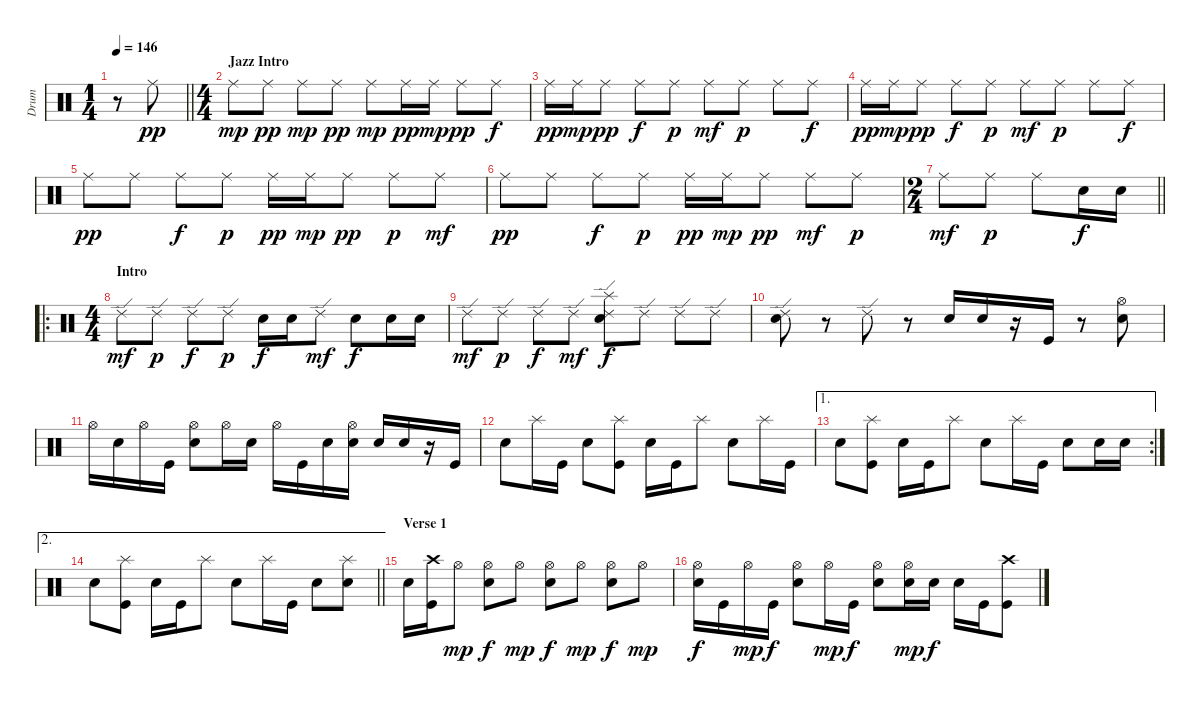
\track ("Drum" "Drum") {instrument percussion}
\staff {score}
\articulation defaults
\ts (1 4)
\tempo 146
\clef neutral
\barLineRight lightlight
\ks c
r.8{dy pp} "Ride (middle)".8 |
\ts (4 4)
\section ("" "Jazz Intro")
"Ride (middle)".8{dy mp} "Ride (middle)".8{dy pp} "Ride (middle)".8{dy mp} "Ride (middle)".8{dy pp} "Ride (middle)".8{dy mp} "Ride (middle)".16{dy pp} "Ride (middle)".16{dy mp} "Ride (middle)".8{dy pp} "Ride (middle)".8{dy f} |
"Ride (middle)".16{dy pp} "Ride (middle)".16{dy mp} "Ride (middle)".8{dy pp} "Ride (middle)".8{dy f} "Ride (middle)".8{dy p} "Ride (middle)".8{dy mf} "Ride (middle)".8{dy p} "Ride (middle)".8 "Ride (middle)".8{dy f} |
"Ride (middle)".16{dy pp} "Ride (middle)".16{dy mp} "Ride (middle)".8{dy pp} "Ride (middle)".8{dy f} "Ride (middle)".8{dy p} "Ride (middle)".8{dy mf} "Ride (middle)".8{dy p} "Ride (middle)".8 "Ride (middle)".8{dy f} |
"Ride (middle)".8{dy pp} "Ride (middle)".8 "Ride (middle)".8{dy f} "Ride (middle)".8{dy p} "Ride (middle)".16{dy pp} "Ride (middle)".16{dy mp} "Ride (middle)".8{dy pp} "Ride (middle)".8{dy p} "Ride (middle)".8{dy mf} |
"Ride (middle)".8{dy pp} "Ride (middle)".8 "Ride (middle)".8{dy f} "Ride (middle)".8{dy p} "Ride (middle)".16{dy pp} "Ride (middle)".16{dy mp} "Ride (middle)".8{dy pp} "Ride (middle)".8{dy mf} "Ride (middle)".8{dy p} |
\ts (2 4)
\barLineRight lightlight "Ride (middle)".8{dy mf} "Ride (middle)".8{dy p} "Ride (middle)".8 "Snare (hit) 2".16{dy f} "Snare (hit) 2".16
|
\ro
\ts (4 4)
\section ("" "Intro")
"Ride (edge) 2".8{dy mf} "Ride (edge) 2".8{dy p} "Ride (edge) 2".8{dy f} "Ride (edge) 2".8{dy p} "Snare (hit) 2".16{dy f} "Snare (hit) 2".16 "Ride (edge) 2".8{dy mf} "Snare (hit) 2".8{dy f} "Snare (hit) 2".16 "Snare (hit) 2".16 |
"Ride (edge) 2".8{dy mf} "Ride (edge) 2".8{dy p} "Ride (edge) 2".8{dy f} "Ride (edge) 2".8{dy mf} ("Ride (edge) 2" "Splash (hit)" "Snare (hit) 2").8{dy f} "Ride (edge) 2".8 "Ride (edge) 2".8 "Ride (edge) 2".8 |
("Ride (edge) 2" "Snare (hit) 2").8 r.8 "Ride (edge) 2".8 r.8 "Snare (hit) 2".16 "Snare (hit) 2".16 r.16 "Kick (hit)".16 r.8 ("Hi-Hat (open)" "Snare (hit) 2").8 |
"Hi-Hat (open)".16 "Snare (hit) 2".16 "Hi-Hat (open)".16 "Kick (hit)".16 ("Hi-Hat (open)" "Snare (hit) 2").8 "Hi-Hat (open)".16 "Snare (hit) 2".16 "Hi-Hat (open)".16 "Kick (hit)".16 "Snare (hit) 2".16 ("Hi-Hat (open)" "Snare (hit) 2").16 "Snare (hit) 2".16 "Snare (hit) 2".16 r.16 "Kick (hit)".16 |
"Snare (hit) 2".8 "Splash (hit)".16 "Kick (hit)".16 "Snare (hit) 2".8 ("Splash (hit)" "Kick (hit)").8 "Snare (hit) 2".16 "Kick (hit)".16 "Splash (hit)".8 "Snare (hit) 2".8 "Splash (hit)".16 "Kick (hit)".16 |
\ae 1
\rc 2 "Snare (hit) 2".8
("Splash (hit)" "Kick (hit)").8 "Snare (hit) 2".16 "Kick (hit)".16 "Splash (hit)".8 "Snare (hit) 2".8 "Splash (hit)".16 "Kick (hit)".16 "Snare (hit) 2".8 "Snare (hit) 2".16 "Snare (hit) 2".16 |
\ae 2
\barLineRight lightlight "Snare (hit) 2".8
("Splash (hit)" "Kick (hit)").8 "Snare (hit) 2".16 "Kick (hit)".16 "Splash (hit)".8 "Snare (hit) 2".8 "Splash (hit)".16 "Kick (hit)".16 "Snare (hit) 2".8 ("Splash (hit)" "Snare (hit) 2").8 |
\section ("" "Verse 1")
"Snare (hit) 2".16 ("Crash high (hit)" "Kick (hit)").16 "Hi-Hat (open)".8{dy mp} ("Hi-Hat (open)" "Snare (hit) 2").8{dy f} "Hi-Hat (open)".8{dy mp} ("Hi-Hat (open)" "Snare (hit) 2").8{dy f} "Hi-Hat (open)".8{dy mp} ("Hi-Hat (open)" "Snare (hit) 2").8{dy f} "Hi-Hat (open)".8{dy mp} |
("Hi-Hat (open)" "Snare (hit) 2").16{dy f} "Kick (hit)".16 "Hi-Hat (open)".16{dy mp} "Kick (hit)".16{dy f} ("Hi-Hat (open)" "Snare (hit) 2").8 "Hi-Hat (open)".16{dy mp} "Kick (hit)".16{dy f} ("Hi-Hat (open)" "Snare (hit) 2").8 ("Hi-Hat (open)" "Snare (hit) 2").16{dy mp} "Snare (hit) 2".16{dy f} "Snare (hit) 2".16 "Kick (hit)".16 ("Crash high (hit)" "Kick (hit)").8
